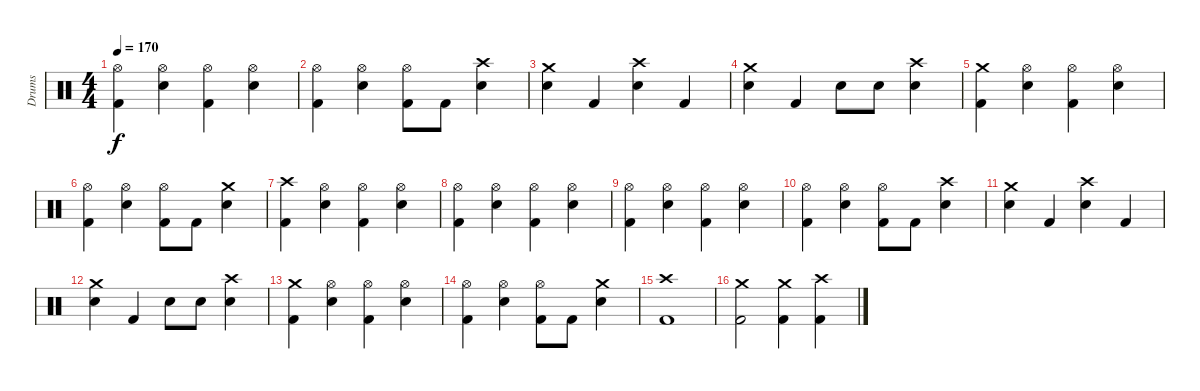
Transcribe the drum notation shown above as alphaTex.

\track ("Drums" "Drums") {instrument percussion}
\staff {score}
\articulation defaults
\ts (4 4)
\tempo 170
\clef neutral
\ks c
("Kick (hit) 2" "Hi-Hat (open)").4{dy f} ("Electric Snare (hit)" "Hi-Hat (open)").4 ("Kick (hit) 2" "Hi-Hat (open)").4 ("Electric Snare (hit)" "Hi-Hat (open)").4 |
("Kick (hit) 2" "Hi-Hat (open)").4 ("Electric Snare (hit)" "Hi-Hat (open)").4 ("Kick (hit) 2" "Hi-Hat (open)").8 "Kick (hit) 2".8 ("Electric Snare (hit)" "Crash high (hit)").4 |
("Electric Snare (hit)" "Crash medium (hit)").4 "Kick (hit) 2".4 ("Electric Snare (hit)" "Crash high (hit)").4 "Kick (hit) 2".4 |
("Electric Snare (hit)" "Crash medium (hit)").4 "Kick (hit) 2".4 "Electric Snare (hit)".8 "Electric Snare (hit)".8 ("Electric Snare (hit)" "Crash high (hit)").4 |
("Kick (hit) 2" "Crash medium (hit)").4 ("Electric Snare (hit)" "Hi-Hat (open)").4 ("Kick (hit) 2" "Hi-Hat (open)").4 ("Electric Snare (hit)" "Hi-Hat (open)").4 |
("Kick (hit) 2" "Hi-Hat (open)").4 ("Electric Snare (hit)" "Hi-Hat (open)").4 ("Kick (hit) 2" "Hi-Hat (open)").8 "Kick (hit) 2".8 ("Electric Snare (hit)" "Crash medium (hit)").4 |
("Kick (hit) 2" "Crash high (hit)").4 ("Electric Snare (hit)" "Hi-Hat (open)").4 ("Kick (hit) 2" "Hi-Hat (open)").4 ("Electric Snare (hit)" "Hi-Hat (open)").4 |
("Kick (hit) 2" "Hi-Hat (open)").4 ("Electric Snare (hit)" "Hi-Hat (open)").4 ("Kick (hit) 2" "Hi-Hat (open)").4 ("Electric Snare (hit)" "Hi-Hat (open)").4 |
("Kick (hit) 2" "Hi-Hat (open)").4 ("Electric Snare (hit)" "Hi-Hat (open)").4 ("Kick (hit) 2" "Hi-Hat (open)").4 ("Electric Snare (hit)" "Hi-Hat (open)").4 |
("Kick (hit) 2" "Hi-Hat (open)").4 ("Electric Snare (hit)" "Hi-Hat (open)").4 ("Kick (hit) 2" "Hi-Hat (open)").8 "Kick (hit) 2".8 ("Electric Snare (hit)" "Crash high (hit)").4 |
("Electric Snare (hit)" "Crash medium (hit)").4 "Kick (hit) 2".4 ("Electric Snare (hit)" "Crash high (hit)").4 "Kick (hit) 2".4 |
("Electric Snare (hit)" "Crash medium (hit)").4 "Kick (hit) 2".4 "Electric Snare (hit)".8 "Electric Snare (hit)".8 ("Electric Snare (hit)" "Crash high (hit)").4 |
("Kick (hit) 2" "Crash medium (hit)").4 ("Electric Snare (hit)" "Hi-Hat (open)").4 ("Kick (hit) 2" "Hi-Hat (open)").4 ("Electric Snare (hit)" "Hi-Hat (open)").4 |
("Kick (hit) 2" "Hi-Hat (open)").4 ("Electric Snare (hit)" "Hi-Hat (open)").4 ("Kick (hit) 2" "Hi-Hat (open)").8 "Kick (hit) 2".8 ("Electric Snare (hit)" "Crash medium (hit)").4 |
\section ("" "")
("Kick (hit) 2" "Crash high (hit)").1 |
("Kick (hit) 2" "Crash medium (hit)").2 ("Kick (hit) 2" "Crash medium (hit)").4 ("Kick (hit) 2" "Crash high (hit)").4
